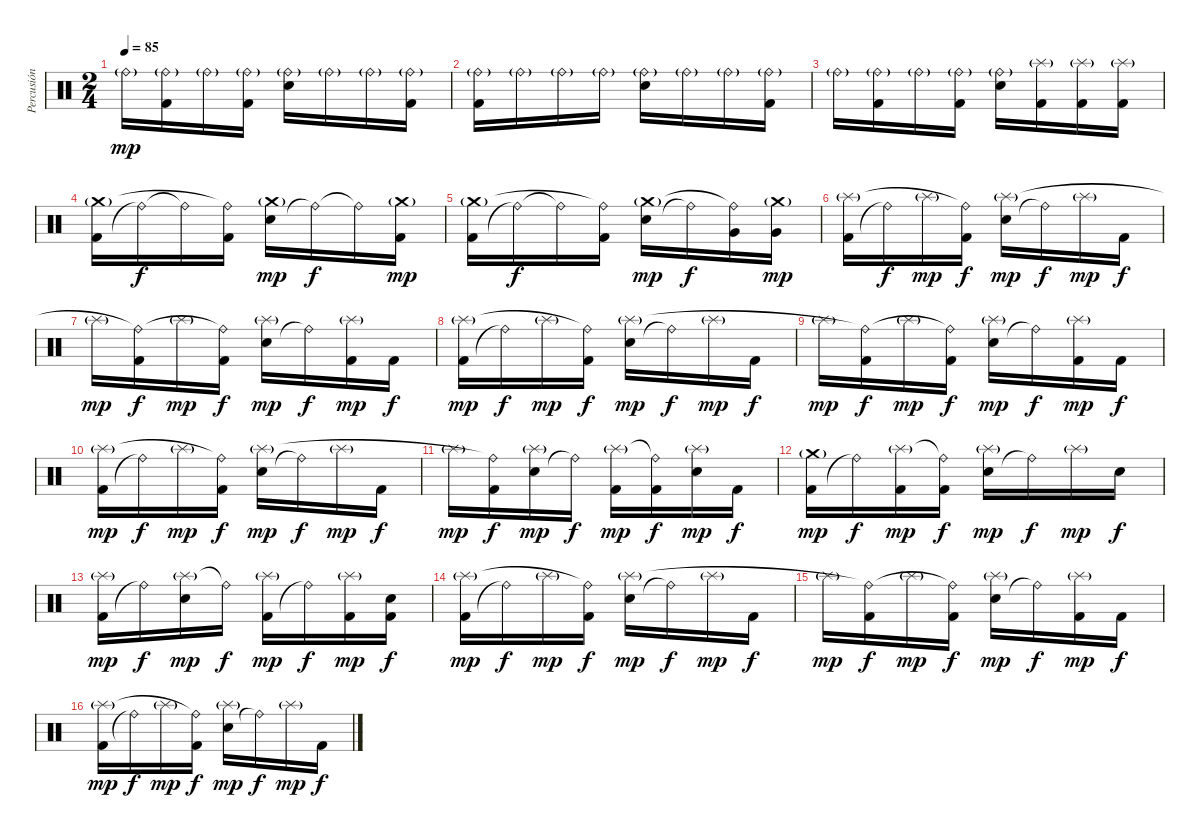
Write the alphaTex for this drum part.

\track ("Percusión" "Percusión") {instrument percussion}
\staff {score}
\articulation defaults
\ts (2 4)
\tempo 85
\clef neutral
\ks c "Ride (bell)"{g}.16{dy mp}
("Kick (hit) 2" "Ride (bell)"{g}).16 "Ride (bell)"{g}.16 ("Kick (hit) 2" "Ride (bell)"{g}).16 ("Electric Snare (hit)" "Ride (bell)"{g}).16 "Ride (bell)"{g}.16 "Ride (bell)"{g}.16 ("Kick (hit) 2" "Ride (bell)"{g}).16 |
("Kick (hit) 2" "Ride (bell)"{g}).16 "Ride (bell)"{g}.16 "Ride (bell)"{g}.16 "Ride (bell)"{g}.16 ("Electric Snare (hit)" "Ride (bell)"{g}).16 "Ride (bell)"{g}.16 "Ride (bell)"{g}.16 ("Kick (hit) 2" "Ride (bell)"{g}).16 |
"Ride (bell)"{g}.16 ("Kick (hit) 2" "Ride (bell)"{g}).16 "Ride (bell)"{g}.16 ("Kick (hit) 2" "Ride (bell)"{g}).16 ("Electric Snare (hit)" "Ride (bell)"{g}).16 ("Kick (hit) 2" "Splash (hit)"{g}).16 ("Kick (hit) 2" "Splash (hit)"{g}).16 ("Kick (hit) 2" "Splash (hit)"{g}).16 |
("Kick (hit) 2" "Crash medium (hit)"{g}).16 "Ride (bell)"{t}.16{dy f} "Ride (bell)"{t}.16 ("Kick (hit) 2" "Ride (bell)"{t}).16 ("Electric Snare (hit)" "Crash medium (hit)"{g}).16{dy mp} "Ride (bell)"{t}.16{dy f} "Ride (bell)"{t}.16 ("Kick (hit) 2" "Crash medium (hit)"{g}).16{dy mp} |
("Kick (hit) 2" "Crash medium (hit)"{g}).16 "Ride (bell)"{t}.16{dy f} "Ride (bell)"{t}.16 ("Kick (hit) 2" "Ride (bell)"{t}).16 ("Electric Snare (hit)" "Crash medium (hit)"{g}).16{dy mp} "Ride (bell)"{t}.16{dy f} ("Very Low Tom (hit)" "Ride (bell)"{t}).16 ("Very Low Tom (hit)" "Crash medium (hit)"{g}).16{dy mp} |
("Kick (hit) 2" "Splash (hit)"{g}).16 "Ride (bell)"{t}.16{dy f} "Splash (hit)"{g}.16{dy mp} ("Kick (hit) 2" "Ride (bell)"{t}).16{dy f} ("Electric Snare (hit)" "Splash (hit)"{g}).16{dy mp} "Ride (bell)"{t}.16{dy f} "Splash (hit)"{g}.16{dy mp} "Kick (hit) 2".16{dy f} |
"Splash (hit)"{g}.16{dy mp} ("Kick (hit) 2" "Ride (bell)"{t}).16{dy f} "Splash (hit)"{g}.16{dy mp} ("Kick (hit) 2" "Ride (bell)"{t}).16{dy f} ("Electric Snare (hit)" "Splash (hit)"{g}).16{dy mp} "Ride (bell)"{t}.16{dy f} ("Kick (hit) 2" "Splash (hit)"{g}).16{dy mp} "Kick (hit) 2".16{dy f} |
("Kick (hit) 2" "Splash (hit)"{g}).16{dy mp} "Ride (bell)"{t}.16{dy f} "Splash (hit)"{g}.16{dy mp} ("Kick (hit) 2" "Ride (bell)"{t}).16{dy f} ("Electric Snare (hit)" "Splash (hit)"{g}).16{dy mp} "Ride (bell)"{t}.16{dy f} "Splash (hit)"{g}.16{dy mp} "Kick (hit) 2".16{dy f} |
"Splash (hit)"{g}.16{dy mp} ("Kick (hit) 2" "Ride (bell)"{t}).16{dy f} "Splash (hit)"{g}.16{dy mp} ("Kick (hit) 2" "Ride (bell)"{t}).16{dy f} ("Electric Snare (hit)" "Splash (hit)"{g}).16{dy mp} "Ride (bell)"{t}.16{dy f} ("Kick (hit) 2" "Splash (hit)"{g}).16{dy mp} "Kick (hit) 2".16{dy f} |
("Kick (hit) 2" "Splash (hit)"{g}).16{dy mp} "Ride (bell)"{t}.16{dy f} "Splash (hit)"{g}.16{dy mp} ("Kick (hit) 2" "Ride (bell)"{t}).16{dy f} ("Electric Snare (hit)" "Splash (hit)"{g}).16{dy mp} "Ride (bell)"{t}.16{dy f} "Splash (hit)"{g}.16{dy mp} "Kick (hit) 2".16{dy f} |
"Splash (hit)"{g}.16{dy mp} ("Kick (hit) 2" "Ride (bell)"{t}).16{dy f} ("Electric Snare (hit)" "Splash (hit)"{g}).16{dy mp} "Ride (bell)"{t}.16{dy f} ("Kick (hit) 2" "Splash (hit)"{g}).16{dy mp} ("Kick (hit) 2" "Ride (bell)"{t}).16{dy f} ("Electric Snare (hit)" "Splash (hit)"{g}).16{dy mp} "Kick (hit) 2".16{dy f} |
("Kick (hit) 2" "Crash medium (hit)"{g}).16{dy mp} "Ride (bell)"{t}.16{dy f} ("Kick (hit) 2" "Splash (hit)"{g}).16{dy mp} ("Kick (hit) 2" "Ride (bell)"{t}).16{dy f} ("Electric Snare (hit)" "Splash (hit)"{g}).16{dy mp} "Ride (bell)"{t}.16{dy f} "Splash (hit)"{g}.16{dy mp} "Electric Snare (hit)".16{dy f} |
("Kick (hit) 2" "Splash (hit)"{g}).16{dy mp} "Ride (bell)"{t}.16{dy f} ("Splash (hit)"{g} "Electric Snare (hit)").16{dy mp} "Ride (bell)"{t}.16{dy f} ("Kick (hit) 2" "Splash (hit)"{g}).16{dy mp} "Ride (bell)"{t}.16{dy f} ("Kick (hit) 2" "Splash (hit)"{g}).16{dy mp} ("Kick (hit) 2" "Electric Snare (hit)").16{dy f} |
("Kick (hit) 2" "Splash (hit)"{g}).16{dy mp} "Ride (bell)"{t}.16{dy f} "Splash (hit)"{g}.16{dy mp} ("Kick (hit) 2" "Ride (bell)"{t}).16{dy f} ("Electric Snare (hit)" "Splash (hit)"{g}).16{dy mp} "Ride (bell)"{t}.16{dy f} "Splash (hit)"{g}.16{dy mp} "Kick (hit) 2".16{dy f} |
"Splash (hit)"{g}.16{dy mp} ("Kick (hit) 2" "Ride (bell)"{t}).16{dy f} "Splash (hit)"{g}.16{dy mp} ("Kick (hit) 2" "Ride (bell)"{t}).16{dy f} ("Electric Snare (hit)" "Splash (hit)"{g}).16{dy mp} "Ride (bell)"{t}.16{dy f} ("Kick (hit) 2" "Splash (hit)"{g}).16{dy mp} "Kick (hit) 2".16{dy f} |
("Kick (hit) 2" "Splash (hit)"{g}).16{dy mp} "Ride (bell)"{t}.16{dy f} "Splash (hit)"{g}.16{dy mp} ("Kick (hit) 2" "Ride (bell)"{t}).16{dy f} ("Electric Snare (hit)" "Splash (hit)"{g}).16{dy mp} "Ride (bell)"{t}.16{dy f} "Splash (hit)"{g}.16{dy mp} "Kick (hit) 2".16{dy f}
